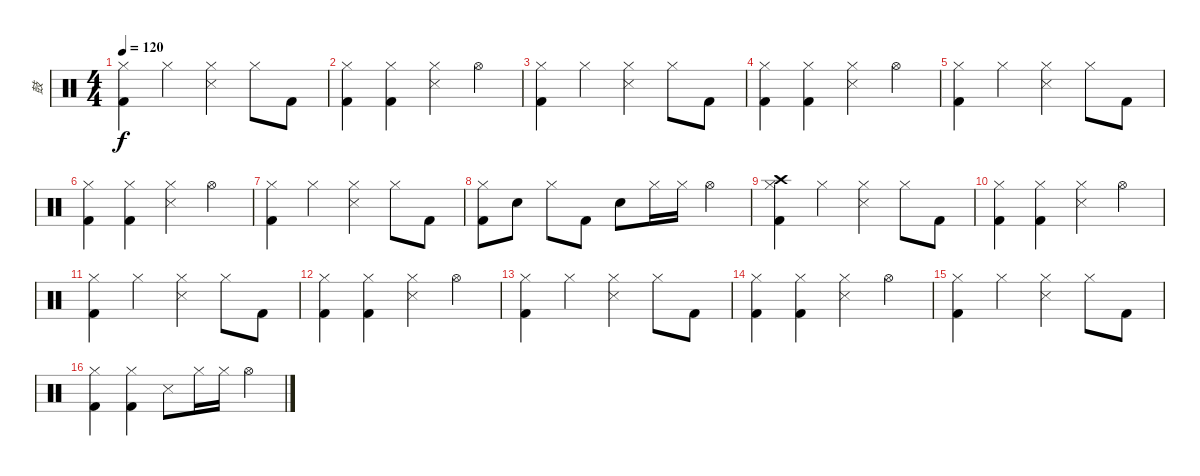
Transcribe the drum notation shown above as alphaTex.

\track ("鼓" "鼓") {instrument percussion}
\staff {score}
\articulation defaults
\ts (4 4)
\tempo 120
\clef neutral
\ks c
("Hi-Hat (closed)" "Kick (hit) 2").4{dy f} "Hi-Hat (closed)".4 ("Hi-Hat (closed)" "Snare (side stick) 3").4 "Hi-Hat (closed)".8 "Kick (hit) 2".8 |
("Hi-Hat (closed)" "Kick (hit) 2").4 ("Hi-Hat (closed)" "Kick (hit) 2").4 ("Hi-Hat (closed)" "Snare (side stick) 3").4 "Hi-Hat (open)".4 |
("Hi-Hat (closed)" "Kick (hit) 2").4 "Hi-Hat (closed)".4 ("Hi-Hat (closed)" "Snare (side stick) 3").4 "Hi-Hat (closed)".8 "Kick (hit) 2".8 |
("Hi-Hat (closed)" "Kick (hit) 2").4 ("Hi-Hat (closed)" "Kick (hit) 2").4 ("Hi-Hat (closed)" "Snare (side stick) 3").4 "Hi-Hat (open)".4 |
("Hi-Hat (closed)" "Kick (hit) 2").4 "Hi-Hat (closed)".4 ("Hi-Hat (closed)" "Snare (side stick) 3").4 "Hi-Hat (closed)".8 "Kick (hit) 2".8 |
("Hi-Hat (closed)" "Kick (hit) 2").4 ("Hi-Hat (closed)" "Kick (hit) 2").4 ("Hi-Hat (closed)" "Snare (side stick) 3").4 "Hi-Hat (open)".4 |
("Hi-Hat (closed)" "Kick (hit) 2").4 "Hi-Hat (closed)".4 ("Hi-Hat (closed)" "Snare (side stick) 3").4 "Hi-Hat (closed)".8 "Kick (hit) 2".8 |
("Hi-Hat (closed)" "Kick (hit) 2").8 "Electric Snare (hit)".8 "Hi-Hat (closed)".8 "Kick (hit) 2".8 "Electric Snare (hit)".8 "Hi-Hat (closed)".16 "Hi-Hat (closed)".16 "Hi-Hat (open)".4 |
("Hi-Hat (closed)" "Crash high (hit)" "Kick (hit) 2").4 "Hi-Hat (closed)".4 ("Hi-Hat (closed)" "Snare (side stick) 3").4 "Hi-Hat (closed)".8 "Kick (hit) 2".8 |
("Hi-Hat (closed)" "Kick (hit) 2").4 ("Hi-Hat (closed)" "Kick (hit) 2").4 ("Hi-Hat (closed)" "Snare (side stick) 3").4 "Hi-Hat (open)".4 |
("Hi-Hat (closed)" "Kick (hit) 2").4 "Hi-Hat (closed)".4 ("Hi-Hat (closed)" "Snare (side stick) 3").4 "Hi-Hat (closed)".8 "Kick (hit) 2".8 |
("Hi-Hat (closed)" "Kick (hit) 2").4 ("Hi-Hat (closed)" "Kick (hit) 2").4 ("Hi-Hat (closed)" "Snare (side stick) 3").4 "Hi-Hat (open)".4 |
("Hi-Hat (closed)" "Kick (hit) 2").4 "Hi-Hat (closed)".4 ("Hi-Hat (closed)" "Snare (side stick) 3").4 "Hi-Hat (closed)".8 "Kick (hit) 2".8 |
("Hi-Hat (closed)" "Kick (hit) 2").4 ("Hi-Hat (closed)" "Kick (hit) 2").4 ("Hi-Hat (closed)" "Snare (side stick) 3").4 "Hi-Hat (open)".4 |
("Hi-Hat (closed)" "Kick (hit) 2").4 "Hi-Hat (closed)".4 ("Hi-Hat (closed)" "Snare (side stick) 3").4 "Hi-Hat (closed)".8 "Kick (hit) 2".8 |
("Hi-Hat (closed)" "Kick (hit) 2").4 ("Hi-Hat (closed)" "Kick (hit) 2").4 "Snare (side stick) 3".8 "Hi-Hat (closed)".16 "Hi-Hat (closed)".16 "Hi-Hat (open)".4
